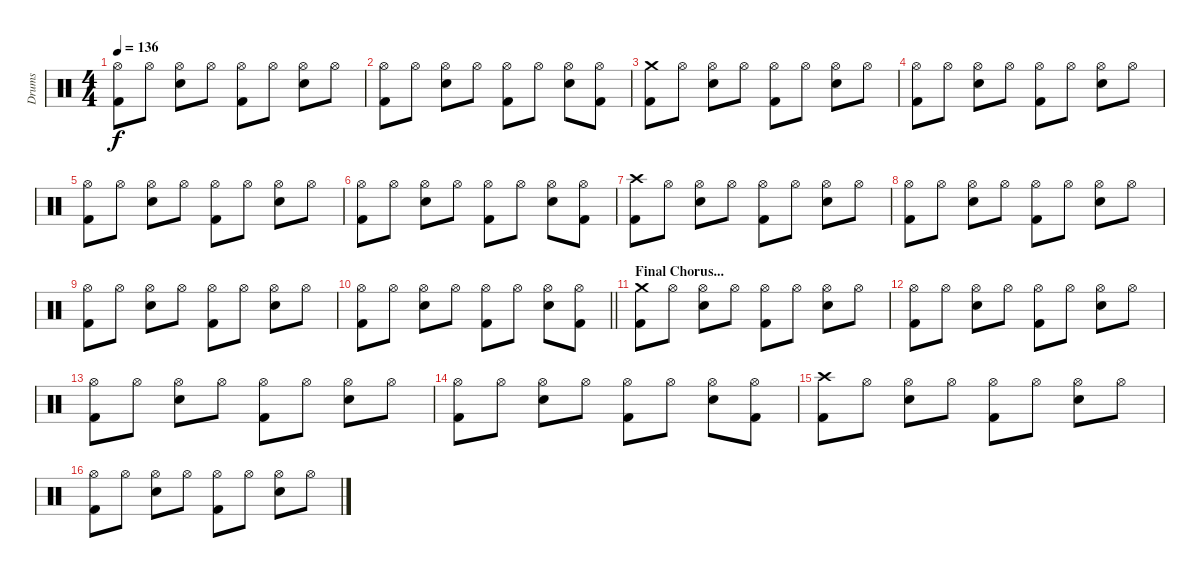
\track ("Drums" "Drums") {instrument percussion}
\staff {score}
\articulation defaults
\ts (4 4)
\tempo 136
\clef neutral
\ks c
("Hi-Hat (open)" "Kick (hit) 2").8{dy f} "Hi-Hat (open)".8 ("Hi-Hat (open)" "Electric Snare (hit)").8 "Hi-Hat (open)".8 ("Hi-Hat (open)" "Kick (hit) 2").8 "Hi-Hat (open)".8 ("Hi-Hat (open)" "Electric Snare (hit)").8 "Hi-Hat (open)".8 |
("Hi-Hat (open)" "Kick (hit) 2").8 "Hi-Hat (open)".8 ("Hi-Hat (open)" "Electric Snare (hit)").8 "Hi-Hat (open)".8 ("Hi-Hat (open)" "Kick (hit) 2").8 "Hi-Hat (open)".8 ("Hi-Hat (open)" "Electric Snare (hit)").8 ("Hi-Hat (open)" "Kick (hit) 2").8 |
("Crash medium (hit)" "Kick (hit) 2").8 "Hi-Hat (open)".8 ("Hi-Hat (open)" "Electric Snare (hit)").8 "Hi-Hat (open)".8 ("Hi-Hat (open)" "Kick (hit) 2").8 "Hi-Hat (open)".8 ("Hi-Hat (open)" "Electric Snare (hit)").8 "Hi-Hat (open)".8 |
("Hi-Hat (open)" "Kick (hit) 2").8 "Hi-Hat (open)".8 ("Hi-Hat (open)" "Electric Snare (hit)").8 "Hi-Hat (open)".8 ("Hi-Hat (open)" "Kick (hit) 2").8 "Hi-Hat (open)".8 ("Hi-Hat (open)" "Electric Snare (hit)").8 "Hi-Hat (open)".8 |
("Hi-Hat (open)" "Kick (hit) 2").8 "Hi-Hat (open)".8 ("Hi-Hat (open)" "Electric Snare (hit)").8 "Hi-Hat (open)".8 ("Hi-Hat (open)" "Kick (hit) 2").8 "Hi-Hat (open)".8 ("Hi-Hat (open)" "Electric Snare (hit)").8 "Hi-Hat (open)".8 |
("Hi-Hat (open)" "Kick (hit) 2").8 "Hi-Hat (open)".8 ("Hi-Hat (open)" "Electric Snare (hit)").8 "Hi-Hat (open)".8 ("Hi-Hat (open)" "Kick (hit) 2").8 "Hi-Hat (open)".8 ("Hi-Hat (open)" "Electric Snare (hit)").8 ("Hi-Hat (open)" "Kick (hit) 2").8 |
("Crash high (hit)" "Kick (hit) 2").8 "Hi-Hat (open)".8 ("Hi-Hat (open)" "Electric Snare (hit)").8 "Hi-Hat (open)".8 ("Hi-Hat (open)" "Kick (hit) 2").8 "Hi-Hat (open)".8 ("Hi-Hat (open)" "Electric Snare (hit)").8 "Hi-Hat (open)".8 |
("Hi-Hat (open)" "Kick (hit) 2").8 "Hi-Hat (open)".8 ("Hi-Hat (open)" "Electric Snare (hit)").8 "Hi-Hat (open)".8 ("Hi-Hat (open)" "Kick (hit) 2").8 "Hi-Hat (open)".8 ("Hi-Hat (open)" "Electric Snare (hit)").8 "Hi-Hat (open)".8 |
("Hi-Hat (open)" "Kick (hit) 2").8 "Hi-Hat (open)".8 ("Hi-Hat (open)" "Electric Snare (hit)").8 "Hi-Hat (open)".8 ("Hi-Hat (open)" "Kick (hit) 2").8 "Hi-Hat (open)".8 ("Hi-Hat (open)" "Electric Snare (hit)").8 "Hi-Hat (open)".8 |
\barLineRight lightlight
("Hi-Hat (open)" "Kick (hit) 2").8 "Hi-Hat (open)".8 ("Hi-Hat (open)" "Electric Snare (hit)").8 "Hi-Hat (open)".8 ("Hi-Hat (open)" "Kick (hit) 2").8 "Hi-Hat (open)".8 ("Hi-Hat (open)" "Electric Snare (hit)").8 ("Hi-Hat (open)" "Kick (hit) 2").8 |
\section ("" "Final Chorus...")
("Crash medium (hit)" "Kick (hit) 2").8 "Hi-Hat (open)".8 ("Hi-Hat (open)" "Electric Snare (hit)").8 "Hi-Hat (open)".8 ("Hi-Hat (open)" "Kick (hit) 2").8 "Hi-Hat (open)".8 ("Hi-Hat (open)" "Electric Snare (hit)").8 "Hi-Hat (open)".8 |
("Hi-Hat (open)" "Kick (hit) 2").8 "Hi-Hat (open)".8 ("Hi-Hat (open)" "Electric Snare (hit)").8 "Hi-Hat (open)".8 ("Hi-Hat (open)" "Kick (hit) 2").8 "Hi-Hat (open)".8 ("Hi-Hat (open)" "Electric Snare (hit)").8 "Hi-Hat (open)".8 |
("Hi-Hat (open)" "Kick (hit) 2").8 "Hi-Hat (open)".8 ("Hi-Hat (open)" "Electric Snare (hit)").8 "Hi-Hat (open)".8 ("Hi-Hat (open)" "Kick (hit) 2").8 "Hi-Hat (open)".8 ("Hi-Hat (open)" "Electric Snare (hit)").8 "Hi-Hat (open)".8 |
("Hi-Hat (open)" "Kick (hit) 2").8 "Hi-Hat (open)".8 ("Hi-Hat (open)" "Electric Snare (hit)").8 "Hi-Hat (open)".8 ("Hi-Hat (open)" "Kick (hit) 2").8 "Hi-Hat (open)".8 ("Hi-Hat (open)" "Electric Snare (hit)").8 ("Hi-Hat (open)" "Kick (hit) 2").8 |
("Crash high (hit)" "Kick (hit) 2").8 "Hi-Hat (open)".8 ("Hi-Hat (open)" "Electric Snare (hit)").8 "Hi-Hat (open)".8 ("Hi-Hat (open)" "Kick (hit) 2").8 "Hi-Hat (open)".8 ("Hi-Hat (open)" "Electric Snare (hit)").8 "Hi-Hat (open)".8 |
("Hi-Hat (open)" "Kick (hit) 2").8 "Hi-Hat (open)".8 ("Hi-Hat (open)" "Electric Snare (hit)").8 "Hi-Hat (open)".8 ("Hi-Hat (open)" "Kick (hit) 2").8 "Hi-Hat (open)".8 ("Hi-Hat (open)" "Electric Snare (hit)").8 "Hi-Hat (open)".8
